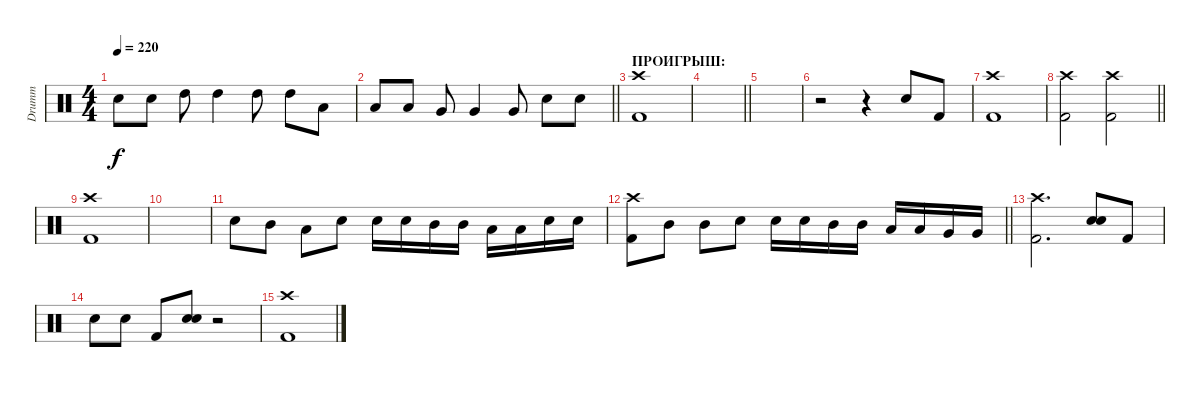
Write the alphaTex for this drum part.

\track ("Drumm" "Drumm") {instrument percussion}
\staff {score}
\articulation defaults
\ts (4 4)
\tempo 220
\clef neutral
\ks c "Snare (hit) 2".8{dy f} "Snare (hit) 2".8 "High Tom (hit)".8 "High Tom (hit)".4 "High Tom (hit)".8 "High Tom (hit)".8 "Low Tom (hit)".8
|
\barLineRight lightlight "Low Tom (hit)".8 "Low Tom (hit)".8 "Very Low Tom (hit)".8 "Very Low Tom (hit)".4 "Very Low Tom (hit)".8 "Snare (hit) 2".8 "Snare (hit) 2".8
|
\section ("" "ПРОИГРЫШ:")
("Crash high (hit)" "Kick (hit) 2").1 |
\barLineRight lightlight
|
|
r.2 r.4 "Snare (hit) 2".8 "Kick (hit) 2".8 |
("Crash high (hit)" "Kick (hit) 2").1 |
\barLineRight lightlight
("Crash high (hit)" "Kick (hit) 2").2 ("Crash high (hit)" "Kick (hit) 2").2 |
("Crash high (hit)" "Kick (hit) 2").1 |
|
"Snare (hit) 2".8 "Mid Tom (hit)".8 "Low Tom (hit)".8 "Snare (hit) 2".8 "Electric Snare (hit)".16 "Electric Snare (hit)".16 "Mid Tom (hit)".16 "Mid Tom (hit)".16 "Low Tom (hit)".16 "Low Tom (hit)".16 "Snare (hit) 2".16 "Snare (hit) 2".16 |
\barLineRight lightlight
("Kick (hit) 2" "Crash high (hit)").8 "Mid Tom (hit)".8 "Mid Tom (hit)".8 "Snare (hit) 2".8 "Electric Snare (hit)".16 "Electric Snare (hit)".16 "Mid Tom (hit)".16 "Mid Tom (hit)".16 "Low Tom (hit)".16 "Low Tom (hit)".16 "Very Low Tom (hit)".16 "Very Low Tom (hit)".16 |
("Crash high (hit)" "Kick (hit) 2").2{d} ("Snare (hit) 2" "Snare (hit) 2").8 "Kick (hit) 2".8 |
"Snare (hit) 2".8 "Snare (hit) 2".8 "Kick (hit) 2".8 ("Snare (hit) 2" "Snare (hit) 2").8 r.2 |
("Crash high (hit)" "Kick (hit) 2").1
